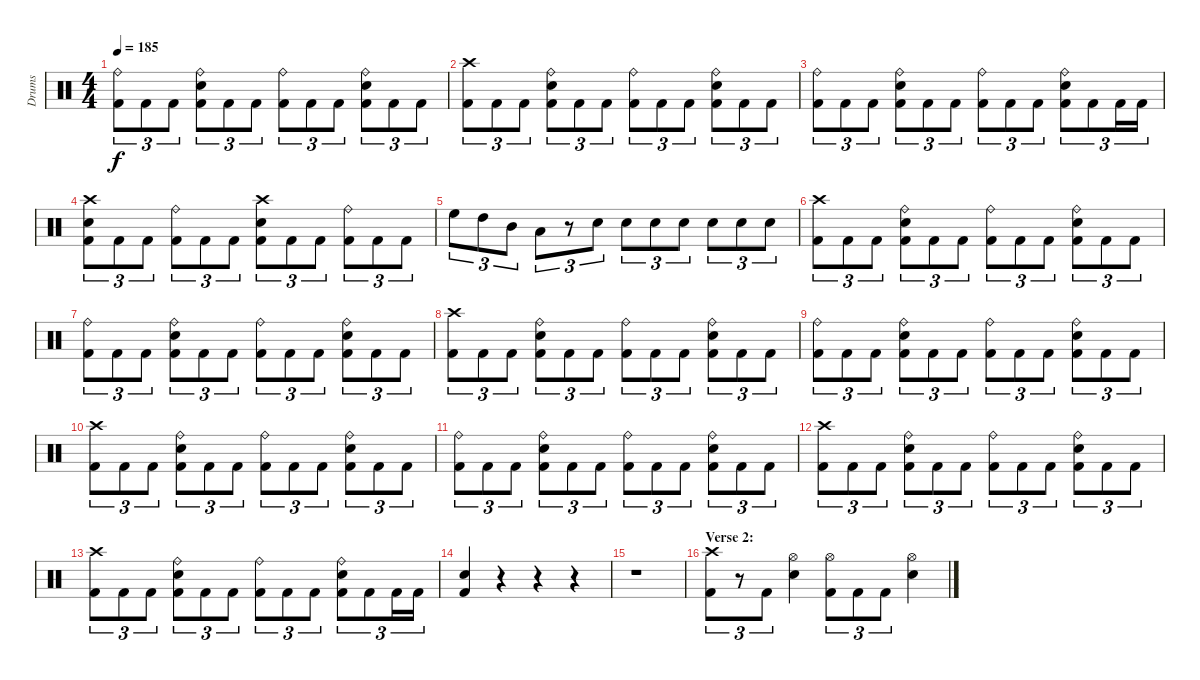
\track ("Drums" "Drums") {instrument percussion}
\staff {score}
\articulation defaults
\ts (4 4)
\tempo 185
\clef neutral
\ks c
("Ride (bell)" "Kick (hit) 2").8{tu (3 2) dy f} "Kick (hit) 2".8{tu (3 2)} "Kick (hit) 2".8{tu (3 2)} ("Ride (bell)" "Electric Snare (hit)" "Kick (hit) 2").8{tu (3 2)} "Kick (hit) 2".8{tu (3 2)} "Kick (hit) 2".8{tu (3 2)} ("Ride (bell)" "Kick (hit) 2").8{tu (3 2)} "Kick (hit) 2".8{tu (3 2)} "Kick (hit) 2".8{tu (3 2)} ("Ride (bell)" "Electric Snare (hit)" "Kick (hit) 2").8{tu (3 2)} "Kick (hit) 2".8{tu (3 2)} "Kick (hit) 2".8{tu (3 2)} |
("Crash high (hit)" "Kick (hit) 2").8{tu (3 2)} "Kick (hit) 2".8{tu (3 2)} "Kick (hit) 2".8{tu (3 2)} ("Ride (bell)" "Electric Snare (hit)" "Kick (hit) 2").8{tu (3 2)} "Kick (hit) 2".8{tu (3 2)} "Kick (hit) 2".8{tu (3 2)} ("Ride (bell)" "Kick (hit) 2").8{tu (3 2)} "Kick (hit) 2".8{tu (3 2)} "Kick (hit) 2".8{tu (3 2)} ("Ride (bell)" "Electric Snare (hit)" "Kick (hit) 2").8{tu (3 2)} "Kick (hit) 2".8{tu (3 2)} "Kick (hit) 2".8{tu (3 2)} |
("Ride (bell)" "Kick (hit) 2").8{tu (3 2)} "Kick (hit) 2".8{tu (3 2)} "Kick (hit) 2".8{tu (3 2)} ("Ride (bell)" "Electric Snare (hit)" "Kick (hit) 2").8{tu (3 2)} "Kick (hit) 2".8{tu (3 2)} "Kick (hit) 2".8{tu (3 2)} ("Ride (bell)" "Kick (hit) 2").8{tu (3 2)} "Kick (hit) 2".8{tu (3 2)} "Kick (hit) 2".8{tu (3 2)} ("Ride (bell)" "Electric Snare (hit)" "Kick (hit) 2").8{tu (3 2)} "Kick (hit) 2".8{tu (3 2)} "Kick (hit) 2".16{tu (3 2)} "Kick (hit) 2".16{tu (3 2)} |
("Crash high (hit)" "Electric Snare (hit)" "Kick (hit) 2").8{tu (3 2)} "Kick (hit) 2".8{tu (3 2)} "Kick (hit) 2".8{tu (3 2)} ("Ride (bell)" "Kick (hit) 2").8{tu (3 2)} "Kick (hit) 2".8{tu (3 2)} "Kick (hit) 2".8{tu (3 2)} ("Crash high (hit)" "Electric Snare (hit)" "Kick (hit) 2").8{tu (3 2)} "Kick (hit) 2".8{tu (3 2)} "Kick (hit) 2".8{tu (3 2)} ("Ride (bell)" "Kick (hit) 2").8{tu (3 2)} "Kick (hit) 2".8{tu (3 2)} "Kick (hit) 2".8{tu (3 2)} |
"High Floor Tom (hit)".8{tu (3 2)} "High Tom (hit)".8{tu (3 2)} "Mid Tom (hit)".8{tu (3 2)} "Low Tom (hit)".8{tu (3 2)} r.8{tu (3 2)} "Electric Snare (hit)".8{tu (3 2)} "Electric Snare (hit)".8{tu (3 2)} "Electric Snare (hit)".8{tu (3 2)} "Electric Snare (hit)".8{tu (3 2)} "Electric Snare (hit)".8{tu (3 2)} "Electric Snare (hit)".8{tu (3 2)} "Electric Snare (hit)".8{tu (3 2)} |
("Crash high (hit)" "Kick (hit) 2").8{tu (3 2)} "Kick (hit) 2".8{tu (3 2)} "Kick (hit) 2".8{tu (3 2)} ("Ride (bell)" "Electric Snare (hit)" "Kick (hit) 2").8{tu (3 2)} "Kick (hit) 2".8{tu (3 2)} "Kick (hit) 2".8{tu (3 2)} ("Ride (bell)" "Kick (hit) 2").8{tu (3 2)} "Kick (hit) 2".8{tu (3 2)} "Kick (hit) 2".8{tu (3 2)} ("Ride (bell)" "Electric Snare (hit)" "Kick (hit) 2").8{tu (3 2)} "Kick (hit) 2".8{tu (3 2)} "Kick (hit) 2".8{tu (3 2)} |
("Ride (bell)" "Kick (hit) 2").8{tu (3 2)} "Kick (hit) 2".8{tu (3 2)} "Kick (hit) 2".8{tu (3 2)} ("Ride (bell)" "Electric Snare (hit)" "Kick (hit) 2").8{tu (3 2)} "Kick (hit) 2".8{tu (3 2)} "Kick (hit) 2".8{tu (3 2)} ("Ride (bell)" "Kick (hit) 2").8{tu (3 2)} "Kick (hit) 2".8{tu (3 2)} "Kick (hit) 2".8{tu (3 2)} ("Ride (bell)" "Electric Snare (hit)" "Kick (hit) 2").8{tu (3 2)} "Kick (hit) 2".8{tu (3 2)} "Kick (hit) 2".8{tu (3 2)} |
("Crash high (hit)" "Kick (hit) 2").8{tu (3 2)} "Kick (hit) 2".8{tu (3 2)} "Kick (hit) 2".8{tu (3 2)} ("Ride (bell)" "Electric Snare (hit)" "Kick (hit) 2").8{tu (3 2)} "Kick (hit) 2".8{tu (3 2)} "Kick (hit) 2".8{tu (3 2)} ("Ride (bell)" "Kick (hit) 2").8{tu (3 2)} "Kick (hit) 2".8{tu (3 2)} "Kick (hit) 2".8{tu (3 2)} ("Ride (bell)" "Electric Snare (hit)" "Kick (hit) 2").8{tu (3 2)} "Kick (hit) 2".8{tu (3 2)} "Kick (hit) 2".8{tu (3 2)} |
("Ride (bell)" "Kick (hit) 2").8{tu (3 2)} "Kick (hit) 2".8{tu (3 2)} "Kick (hit) 2".8{tu (3 2)} ("Ride (bell)" "Electric Snare (hit)" "Kick (hit) 2").8{tu (3 2)} "Kick (hit) 2".8{tu (3 2)} "Kick (hit) 2".8{tu (3 2)} ("Ride (bell)" "Kick (hit) 2").8{tu (3 2)} "Kick (hit) 2".8{tu (3 2)} "Kick (hit) 2".8{tu (3 2)} ("Ride (bell)" "Electric Snare (hit)" "Kick (hit) 2").8{tu (3 2)} "Kick (hit) 2".8{tu (3 2)} "Kick (hit) 2".8{tu (3 2)} |
("Crash high (hit)" "Kick (hit) 2").8{tu (3 2)} "Kick (hit) 2".8{tu (3 2)} "Kick (hit) 2".8{tu (3 2)} ("Ride (bell)" "Electric Snare (hit)" "Kick (hit) 2").8{tu (3 2)} "Kick (hit) 2".8{tu (3 2)} "Kick (hit) 2".8{tu (3 2)} ("Ride (bell)" "Kick (hit) 2").8{tu (3 2)} "Kick (hit) 2".8{tu (3 2)} "Kick (hit) 2".8{tu (3 2)} ("Ride (bell)" "Electric Snare (hit)" "Kick (hit) 2").8{tu (3 2)} "Kick (hit) 2".8{tu (3 2)} "Kick (hit) 2".8{tu (3 2)} |
("Ride (bell)" "Kick (hit) 2").8{tu (3 2)} "Kick (hit) 2".8{tu (3 2)} "Kick (hit) 2".8{tu (3 2)} ("Ride (bell)" "Electric Snare (hit)" "Kick (hit) 2").8{tu (3 2)} "Kick (hit) 2".8{tu (3 2)} "Kick (hit) 2".8{tu (3 2)} ("Ride (bell)" "Kick (hit) 2").8{tu (3 2)} "Kick (hit) 2".8{tu (3 2)} "Kick (hit) 2".8{tu (3 2)} ("Ride (bell)" "Electric Snare (hit)" "Kick (hit) 2").8{tu (3 2)} "Kick (hit) 2".8{tu (3 2)} "Kick (hit) 2".8{tu (3 2)} |
("Crash high (hit)" "Kick (hit) 2").8{tu (3 2)} "Kick (hit) 2".8{tu (3 2)} "Kick (hit) 2".8{tu (3 2)} ("Ride (bell)" "Electric Snare (hit)" "Kick (hit) 2").8{tu (3 2)} "Kick (hit) 2".8{tu (3 2)} "Kick (hit) 2".8{tu (3 2)} ("Ride (bell)" "Kick (hit) 2").8{tu (3 2)} "Kick (hit) 2".8{tu (3 2)} "Kick (hit) 2".8{tu (3 2)} ("Ride (bell)" "Electric Snare (hit)" "Kick (hit) 2").8{tu (3 2)} "Kick (hit) 2".8{tu (3 2)} "Kick (hit) 2".8{tu (3 2)} |
("Crash high (hit)" "Kick (hit) 2").8{tu (3 2)} "Kick (hit) 2".8{tu (3 2)} "Kick (hit) 2".8{tu (3 2)} ("Ride (bell)" "Electric Snare (hit)" "Kick (hit) 2").8{tu (3 2)} "Kick (hit) 2".8{tu (3 2)} "Kick (hit) 2".8{tu (3 2)} ("Ride (bell)" "Kick (hit) 2").8{tu (3 2)} "Kick (hit) 2".8{tu (3 2)} "Kick (hit) 2".8{tu (3 2)} ("Ride (bell)" "Electric Snare (hit)" "Kick (hit) 2").8{tu (3 2)} "Kick (hit) 2".8{tu (3 2)} "Kick (hit) 2".16{tu (3 2)} "Kick (hit) 2".16{tu (3 2)} |
("Electric Snare (hit)" "Kick (hit) 2").4 r.4 r.4 r.4 |
r.1 |
\section ("" "Verse 2:")
("Crash high (hit)" "Kick (hit) 2").8{tu (3 2)} r.8{tu (3 2)} "Kick (hit) 2".8{tu (3 2)} ("Hi-Hat (open)" "Electric Snare (hit)").4 ("Hi-Hat (open)" "Kick (hit) 2").8{tu (3 2)} "Kick (hit) 2".8{tu (3 2)} "Kick (hit) 2".8{tu (3 2)} ("Hi-Hat (open)" "Electric Snare (hit)").4
